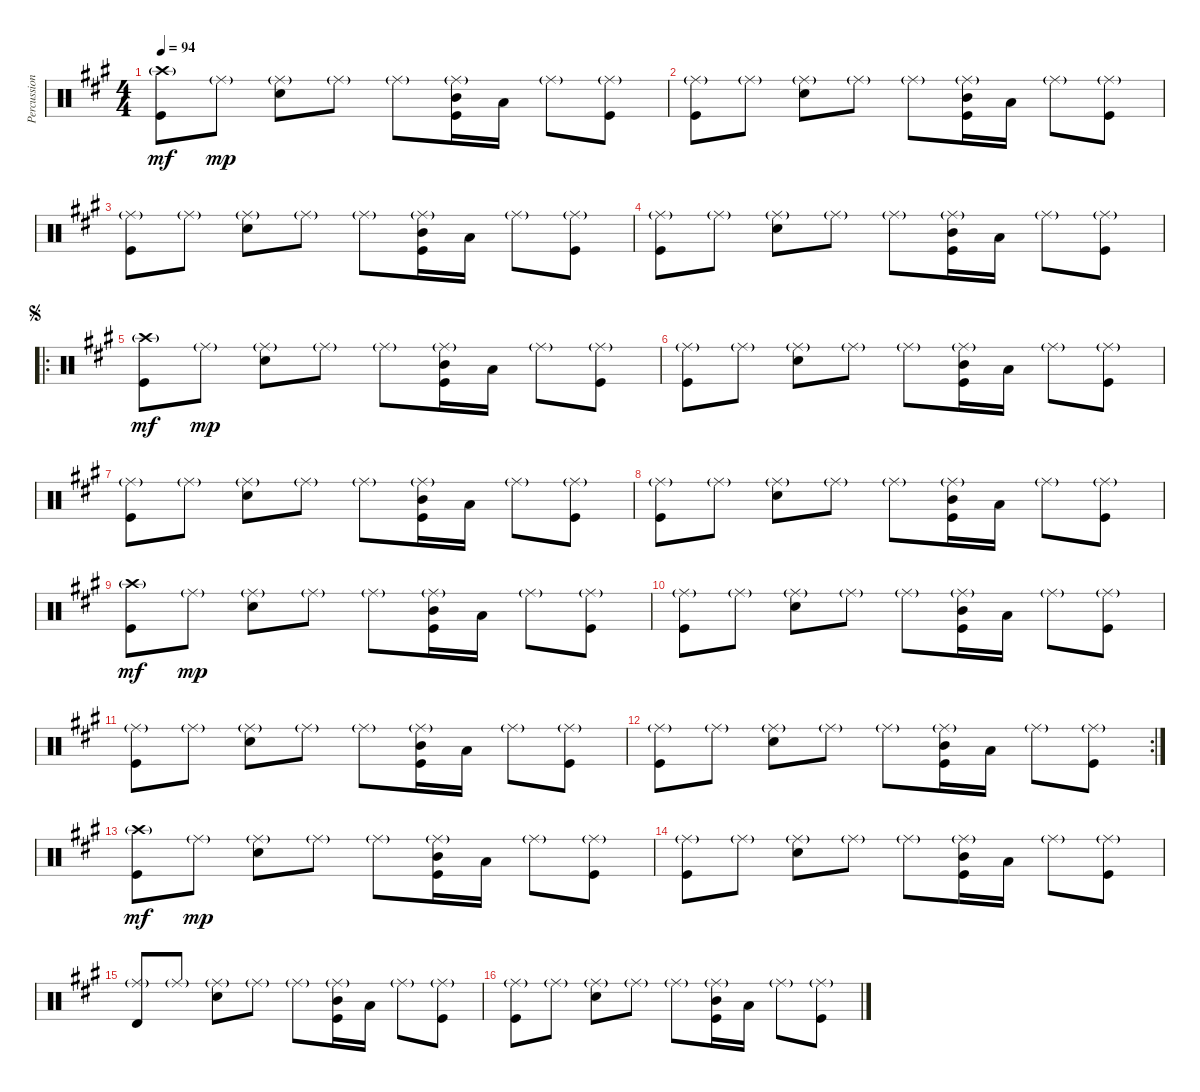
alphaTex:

\track ("Percussion" "Percussion") {instrument percussion}
\staff {score}
\articulation defaults
\ts (4 4)
\tempo 94
\clef neutral
\ks a
("Crash high (hit)"{g} "Kick (hit)").8{dy mf} "Ride (middle)"{g}.8{dy mp} ("Ride (middle)"{g} "Electric Snare (hit)").8 "Ride (middle)"{g}.8 "Ride (middle)"{g}.8 ("Ride (middle)"{g} "Mid Tom (hit)" "Kick (hit)").16 "Low Tom (hit)".16 "Ride (middle)"{g}.8 ("Ride (middle)"{g} "Kick (hit)").8 |
("Ride (middle)"{g} "Kick (hit)").8 "Ride (middle)"{g}.8 ("Ride (middle)"{g} "Electric Snare (hit)").8 "Ride (middle)"{g}.8 "Ride (middle)"{g}.8 ("Ride (middle)"{g} "Mid Tom (hit)" "Kick (hit)").16 "Low Tom (hit)".16 "Ride (middle)"{g}.8 ("Ride (middle)"{g} "Kick (hit)").8 |
("Ride (middle)"{g} "Kick (hit)").8 "Ride (middle)"{g}.8 ("Ride (middle)"{g} "Electric Snare (hit)").8 "Ride (middle)"{g}.8 "Ride (middle)"{g}.8 ("Ride (middle)"{g} "Mid Tom (hit)" "Kick (hit)").16 "Low Tom (hit)".16 "Ride (middle)"{g}.8 ("Ride (middle)"{g} "Kick (hit)").8 |
("Ride (middle)"{g} "Kick (hit)").8 "Ride (middle)"{g}.8 ("Ride (middle)"{g} "Electric Snare (hit)").8 "Ride (middle)"{g}.8 "Ride (middle)"{g}.8 ("Ride (middle)"{g} "Mid Tom (hit)" "Kick (hit)").16 "Low Tom (hit)".16 "Ride (middle)"{g}.8 ("Ride (middle)"{g} "Kick (hit)").8 |
\ro
\jump segno
("Crash high (hit)"{g} "Kick (hit)").8{dy mf} "Ride (middle)"{g}.8{dy mp} ("Ride (middle)"{g} "Electric Snare (hit)").8 "Ride (middle)"{g}.8 "Ride (middle)"{g}.8 ("Ride (middle)"{g} "Mid Tom (hit)" "Kick (hit)").16 "Low Tom (hit)".16 "Ride (middle)"{g}.8 ("Ride (middle)"{g} "Kick (hit)").8 |
("Ride (middle)"{g} "Kick (hit)").8 "Ride (middle)"{g}.8 ("Ride (middle)"{g} "Electric Snare (hit)").8 "Ride (middle)"{g}.8 "Ride (middle)"{g}.8 ("Ride (middle)"{g} "Mid Tom (hit)" "Kick (hit)").16 "Low Tom (hit)".16 "Ride (middle)"{g}.8 ("Ride (middle)"{g} "Kick (hit)").8 |
("Ride (middle)"{g} "Kick (hit)").8 "Ride (middle)"{g}.8 ("Ride (middle)"{g} "Electric Snare (hit)").8 "Ride (middle)"{g}.8 "Ride (middle)"{g}.8 ("Ride (middle)"{g} "Mid Tom (hit)" "Kick (hit)").16 "Low Tom (hit)".16 "Ride (middle)"{g}.8 ("Ride (middle)"{g} "Kick (hit)").8 |
("Ride (middle)"{g} "Kick (hit)").8 "Ride (middle)"{g}.8 ("Ride (middle)"{g} "Electric Snare (hit)").8 "Ride (middle)"{g}.8 "Ride (middle)"{g}.8 ("Ride (middle)"{g} "Mid Tom (hit)" "Kick (hit)").16 "Low Tom (hit)".16 "Ride (middle)"{g}.8 ("Ride (middle)"{g} "Kick (hit)").8 |
("Crash high (hit)"{g} "Kick (hit)").8{dy mf} "Ride (middle)"{g}.8{dy mp} ("Ride (middle)"{g} "Electric Snare (hit)").8 "Ride (middle)"{g}.8 "Ride (middle)"{g}.8 ("Ride (middle)"{g} "Mid Tom (hit)" "Kick (hit)").16 "Low Tom (hit)".16 "Ride (middle)"{g}.8 ("Ride (middle)"{g} "Kick (hit)").8 |
("Ride (middle)"{g} "Kick (hit)").8 "Ride (middle)"{g}.8 ("Ride (middle)"{g} "Electric Snare (hit)").8 "Ride (middle)"{g}.8 "Ride (middle)"{g}.8 ("Ride (middle)"{g} "Mid Tom (hit)" "Kick (hit)").16 "Low Tom (hit)".16 "Ride (middle)"{g}.8 ("Ride (middle)"{g} "Kick (hit)").8 |
("Ride (middle)"{g} "Kick (hit)").8 "Ride (middle)"{g}.8 ("Ride (middle)"{g} "Electric Snare (hit)").8 "Ride (middle)"{g}.8 "Ride (middle)"{g}.8 ("Ride (middle)"{g} "Mid Tom (hit)" "Kick (hit)").16 "Low Tom (hit)".16 "Ride (middle)"{g}.8 ("Ride (middle)"{g} "Kick (hit)").8 |
\rc 2
("Ride (middle)"{g} "Kick (hit)").8 "Ride (middle)"{g}.8 ("Ride (middle)"{g} "Electric Snare (hit)").8 "Ride (middle)"{g}.8 "Ride (middle)"{g}.8 ("Ride (middle)"{g} "Mid Tom (hit)" "Kick (hit)").16 "Low Tom (hit)".16 "Ride (middle)"{g}.8 ("Ride (middle)"{g} "Kick (hit)").8 |
("Crash high (hit)"{g} "Kick (hit)").8{dy mf} "Ride (middle)"{g}.8{dy mp} ("Ride (middle)"{g} "Electric Snare (hit)").8 "Ride (middle)"{g}.8 "Ride (middle)"{g}.8 ("Ride (middle)"{g} "Mid Tom (hit)" "Kick (hit)").16 "Low Tom (hit)".16 "Ride (middle)"{g}.8 ("Ride (middle)"{g} "Kick (hit)").8 |
("Ride (middle)"{g} "Kick (hit)").8 "Ride (middle)"{g}.8 ("Ride (middle)"{g} "Electric Snare (hit)").8 "Ride (middle)"{g}.8 "Ride (middle)"{g}.8 ("Ride (middle)"{g} "Mid Tom (hit)" "Kick (hit)").16 "Low Tom (hit)".16 "Ride (middle)"{g}.8 ("Ride (middle)"{g} "Kick (hit)").8 |
("Ride (middle)"{g} "Timbale high (hit)").8 "Ride (middle)"{g}.8 ("Ride (middle)"{g} "Electric Snare (hit)").8 "Ride (middle)"{g}.8 "Ride (middle)"{g}.8 ("Ride (middle)"{g} "Mid Tom (hit)" "Kick (hit)").16 "Low Tom (hit)".16 "Ride (middle)"{g}.8 ("Ride (middle)"{g} "Kick (hit)").8 |
("Ride (middle)"{g} "Kick (hit)").8 "Ride (middle)"{g}.8 ("Ride (middle)"{g} "Electric Snare (hit)").8 "Ride (middle)"{g}.8 "Ride (middle)"{g}.8 ("Ride (middle)"{g} "Mid Tom (hit)" "Kick (hit)").16 "Low Tom (hit)".16 "Ride (middle)"{g}.8 ("Ride (middle)"{g} "Kick (hit)").8
